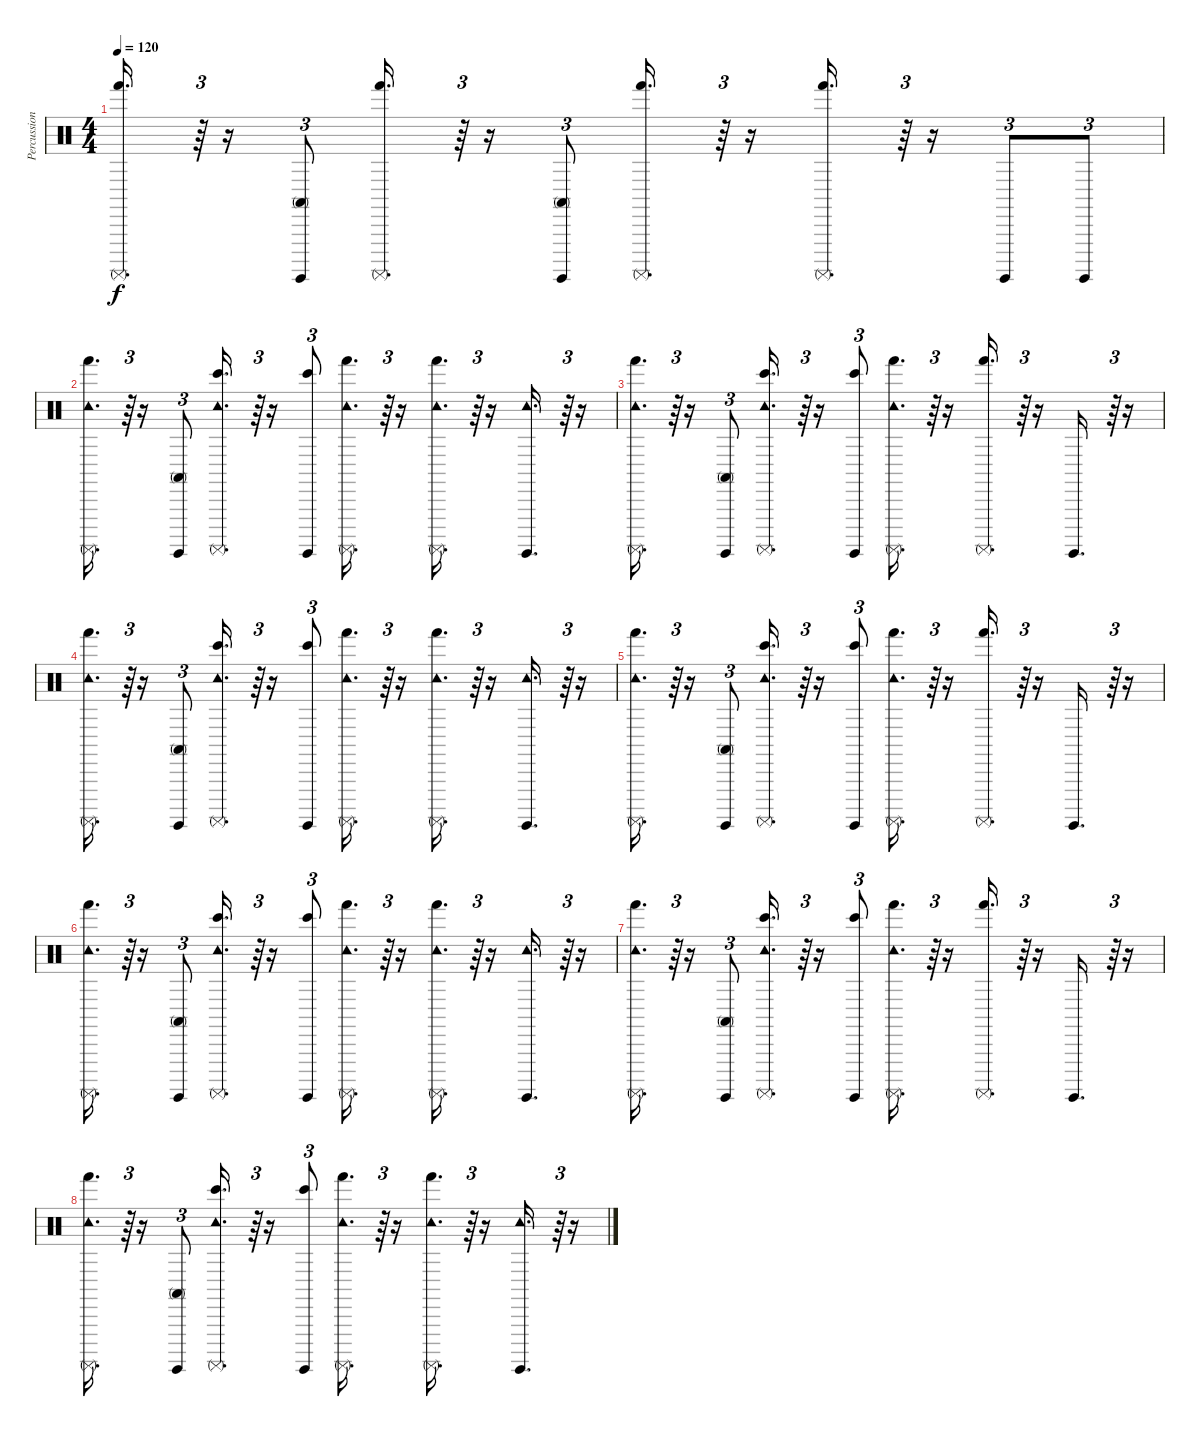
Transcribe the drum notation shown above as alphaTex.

\track ("Percussion" "Percussion") {instrument percussion}
\staff {score}
\articulation defaults
\ts (4 4)
\tempo 120
\clef neutral
\ks c
("Hand (hit)" "Surdo (mute)").16{d dy f} r.64{tu (3 2)} r.16 ("Conga high (mute)" "Surdo (hit)").8{tu (3 2)} ("Hand (hit)" "Surdo (mute)").16{d} r.64{tu (3 2)} r.16 ("Conga high (mute)" "Surdo (hit)").8{tu (3 2)} ("Hand (hit)" "Surdo (mute)").16{d} r.64{tu (3 2)} r.16 ("Hand (hit)" "Surdo (mute)").16{d} r.64{tu (3 2)} r.16 "Surdo (hit)".8{tu (3 2)} "Surdo (hit)".8{tu (3 2)} |
("Tambourine (hit)" "Hand (hit)" "Surdo (mute)").16{d} r.64{tu (3 2)} r.16 ("Conga high (mute)" "Surdo (hit)").8{tu (3 2)} ("Tambourine (hit)" "Bongo High (hit)" "Surdo (mute)").16{d} r.64{tu (3 2)} r.16 ("Bongo High (hit)" "Surdo (hit)").8{tu (3 2)} ("Tambourine (hit)" "Hand (hit)" "Surdo (mute)").16{d} r.64{tu (3 2)} r.16 ("Tambourine (hit)" "Hand (hit)" "Surdo (mute)").16{d} r.64{tu (3 2)} r.16 ("Tambourine (hit)" "Surdo (hit)").16{d} r.64{tu (3 2)} r.16 |
("Tambourine (hit)" "Hand (hit)" "Surdo (mute)").16{d} r.64{tu (3 2)} r.16 ("Conga high (mute)" "Surdo (hit)").8{tu (3 2)} ("Tambourine (hit)" "Bongo High (hit)" "Surdo (mute)").16{d} r.64{tu (3 2)} r.16 ("Bongo High (hit)" "Surdo (hit)").8{tu (3 2)} ("Tambourine (hit)" "Hand (hit)" "Surdo (mute)").16{d} r.64{tu (3 2)} r.16 ("Hand (hit)" "Surdo (mute)").16{d} r.64{tu (3 2)} r.16 "Surdo (hit)".16{d} r.64{tu (3 2)} r.16 |
("Tambourine (hit)" "Hand (hit)" "Surdo (mute)").16{d} r.64{tu (3 2)} r.16 ("Conga high (mute)" "Surdo (hit)").8{tu (3 2)} ("Tambourine (hit)" "Bongo High (hit)" "Surdo (mute)").16{d} r.64{tu (3 2)} r.16 ("Bongo High (hit)" "Surdo (hit)").8{tu (3 2)} ("Tambourine (hit)" "Hand (hit)" "Surdo (mute)").16{d} r.64{tu (3 2)} r.16 ("Tambourine (hit)" "Hand (hit)" "Surdo (mute)").16{d} r.64{tu (3 2)} r.16 ("Tambourine (hit)" "Surdo (hit)").16{d} r.64{tu (3 2)} r.16 |
("Tambourine (hit)" "Hand (hit)" "Surdo (mute)").16{d} r.64{tu (3 2)} r.16 ("Conga high (mute)" "Surdo (hit)").8{tu (3 2)} ("Tambourine (hit)" "Bongo High (hit)" "Surdo (mute)").16{d} r.64{tu (3 2)} r.16 ("Bongo High (hit)" "Surdo (hit)").8{tu (3 2)} ("Tambourine (hit)" "Hand (hit)" "Surdo (mute)").16{d} r.64{tu (3 2)} r.16 ("Hand (hit)" "Surdo (mute)").16{d} r.64{tu (3 2)} r.16 "Surdo (hit)".16{d} r.64{tu (3 2)} r.16 |
("Tambourine (hit)" "Hand (hit)" "Surdo (mute)").16{d} r.64{tu (3 2)} r.16 ("Conga high (mute)" "Surdo (hit)").8{tu (3 2)} ("Tambourine (hit)" "Bongo High (hit)" "Surdo (mute)").16{d} r.64{tu (3 2)} r.16 ("Bongo High (hit)" "Surdo (hit)").8{tu (3 2)} ("Tambourine (hit)" "Hand (hit)" "Surdo (mute)").16{d} r.64{tu (3 2)} r.16 ("Tambourine (hit)" "Hand (hit)" "Surdo (mute)").16{d} r.64{tu (3 2)} r.16 ("Tambourine (hit)" "Surdo (hit)").16{d} r.64{tu (3 2)} r.16 |
("Tambourine (hit)" "Hand (hit)" "Surdo (mute)").16{d} r.64{tu (3 2)} r.16 ("Conga high (mute)" "Surdo (hit)").8{tu (3 2)} ("Tambourine (hit)" "Bongo High (hit)" "Surdo (mute)").16{d} r.64{tu (3 2)} r.16 ("Bongo High (hit)" "Surdo (hit)").8{tu (3 2)} ("Tambourine (hit)" "Hand (hit)" "Surdo (mute)").16{d} r.64{tu (3 2)} r.16 ("Hand (hit)" "Surdo (mute)").16{d} r.64{tu (3 2)} r.16 "Surdo (hit)".16{d} r.64{tu (3 2)} r.16 |
("Tambourine (hit)" "Hand (hit)" "Surdo (mute)").16{d} r.64{tu (3 2)} r.16 ("Conga high (mute)" "Surdo (hit)").8{tu (3 2)} ("Tambourine (hit)" "Bongo High (hit)" "Surdo (mute)").16{d} r.64{tu (3 2)} r.16 ("Bongo High (hit)" "Surdo (hit)").8{tu (3 2)} ("Tambourine (hit)" "Hand (hit)" "Surdo (mute)").16{d} r.64{tu (3 2)} r.16 ("Tambourine (hit)" "Hand (hit)" "Surdo (mute)").16{d} r.64{tu (3 2)} r.16 ("Tambourine (hit)" "Surdo (hit)").16{d} r.64{tu (3 2)} r.16
